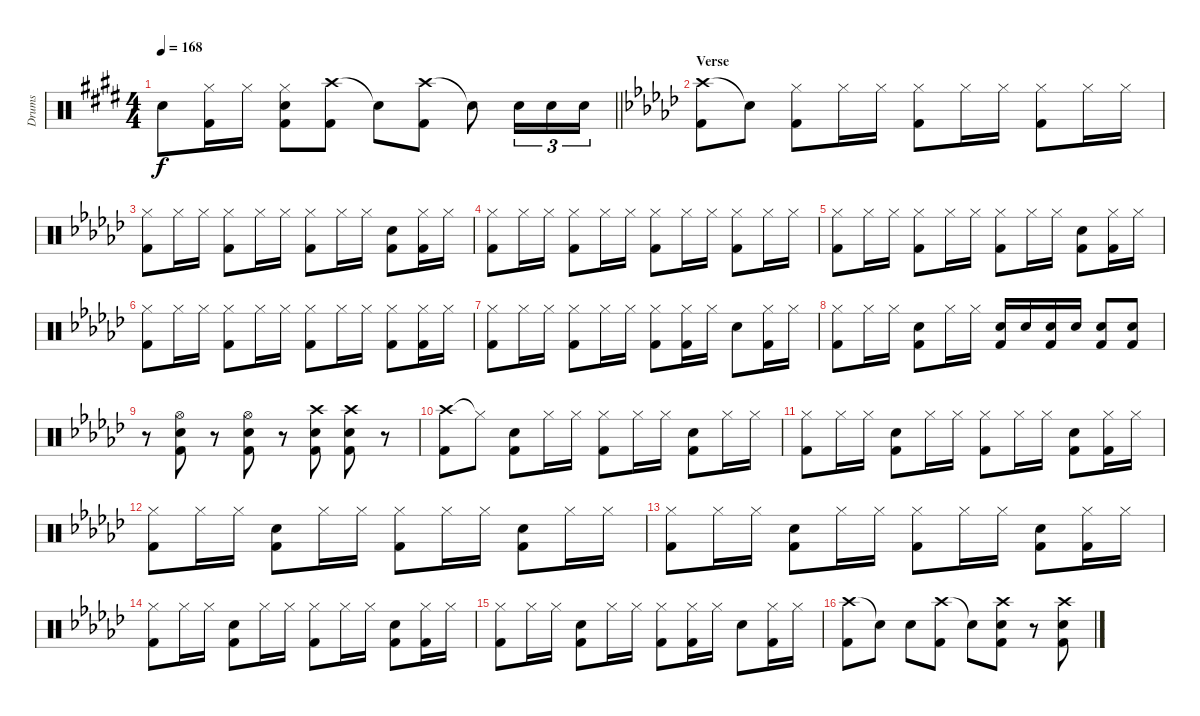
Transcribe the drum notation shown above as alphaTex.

\track ("Drums" "Drums") {instrument percussion}
\staff {score}
\articulation defaults
\ts (4 4)
\tempo 168
\clef neutral
\barLineRight lightlight
\ks e "Snare (hit)"{t}.8{dy f}
("Hi-Hat (closed)" "Kick (hit) 2").16 "Hi-Hat (closed)".16 ("Hi-Hat (closed)" "Snare (hit) 2" "Kick (hit) 2").8 ("Crash high (hit)" "Kick (hit) 2").8 "Snare (hit)"{t}.8 ("Crash high (hit)" "Kick (hit) 2").8 "Snare (hit)"{t}.8 "Snare (hit) 2".16{tu (3 2)} "Snare (hit) 2".16{tu (3 2)} "Snare (hit) 2".16{tu (3 2)} |
\section ("" "Verse")
\ks gb
("Crash high (hit)" "Kick (hit) 2").8 "Snare (hit)"{t}.8 ("Hi-Hat (closed)" "Kick (hit) 2").8 "Hi-Hat (closed)".16 "Hi-Hat (closed)".16 ("Hi-Hat (closed)" "Kick (hit) 2").8 "Hi-Hat (closed)".16 "Hi-Hat (closed)".16 ("Hi-Hat (closed)" "Kick (hit) 2").8 "Hi-Hat (closed)".16 "Hi-Hat (closed)".16 |
("Hi-Hat (closed)" "Kick (hit) 2").8 "Hi-Hat (closed)".16 "Hi-Hat (closed)".16 ("Hi-Hat (closed)" "Kick (hit) 2").8 "Hi-Hat (closed)".16 "Hi-Hat (closed)".16 ("Hi-Hat (closed)" "Kick (hit) 2").8 "Hi-Hat (closed)".16 "Hi-Hat (closed)".16 ("Snare (hit) 2" "Kick (hit) 2").8 ("Hi-Hat (closed)" "Kick (hit) 2").16 "Hi-Hat (closed)".16 |
("Hi-Hat (closed)" "Kick (hit) 2").8 "Hi-Hat (closed)".16 "Hi-Hat (closed)".16 ("Hi-Hat (closed)" "Kick (hit) 2").8 "Hi-Hat (closed)".16 "Hi-Hat (closed)".16 ("Hi-Hat (closed)" "Kick (hit) 2").8 "Hi-Hat (closed)".16 "Hi-Hat (closed)".16 ("Hi-Hat (closed)" "Kick (hit) 2").8 "Hi-Hat (closed)".16 "Hi-Hat (closed)".16 |
("Hi-Hat (closed)" "Kick (hit) 2").8 "Hi-Hat (closed)".16 "Hi-Hat (closed)".16 ("Hi-Hat (closed)" "Kick (hit) 2").8 "Hi-Hat (closed)".16 "Hi-Hat (closed)".16 ("Hi-Hat (closed)" "Kick (hit) 2").8 "Hi-Hat (closed)".16 "Hi-Hat (closed)".16 ("Snare (hit) 2" "Kick (hit) 2").8 ("Hi-Hat (closed)" "Kick (hit) 2").16 "Hi-Hat (closed)".16 |
("Hi-Hat (closed)" "Kick (hit) 2").8 "Hi-Hat (closed)".16 "Hi-Hat (closed)".16 ("Hi-Hat (closed)" "Kick (hit) 2").8 "Hi-Hat (closed)".16 "Hi-Hat (closed)".16 ("Hi-Hat (closed)" "Kick (hit) 2").8 "Hi-Hat (closed)".16 "Hi-Hat (closed)".16 ("Hi-Hat (closed)" "Kick (hit) 2").8 ("Hi-Hat (closed)" "Kick (hit) 2").16 "Hi-Hat (closed)".16 |
("Hi-Hat (closed)" "Kick (hit) 2").8 "Hi-Hat (closed)".16 "Hi-Hat (closed)".16 ("Hi-Hat (closed)" "Kick (hit) 2").8 "Hi-Hat (closed)".16 "Hi-Hat (closed)".16 ("Hi-Hat (closed)" "Kick (hit) 2").8 ("Hi-Hat (closed)" "Kick (hit) 2").16 "Hi-Hat (closed)".16 "Snare (hit) 2".8 ("Hi-Hat (closed)" "Kick (hit) 2").16 "Hi-Hat (closed)".16 |
("Hi-Hat (closed)" "Kick (hit) 2").8 "Hi-Hat (closed)".16 "Hi-Hat (closed)".16 ("Snare (hit) 2" "Kick (hit) 2").8 "Hi-Hat (closed)".16 "Hi-Hat (closed)".16 ("Snare (hit) 2" "Kick (hit) 2").16 "Snare (hit) 2".16 ("Snare (hit) 2" "Kick (hit) 2").16 "Snare (hit) 2".16 ("Snare (hit) 2" "Kick (hit) 2").8 ("Snare (hit) 2" "Kick (hit) 2").8 |
r.8 ("Hi-Hat (open)" "Snare (hit) 2" "Kick (hit) 2").8 r.8 ("Hi-Hat (open)" "Snare (hit) 2" "Kick (hit) 2").8 r.8 ("Crash high (hit)" "Snare (hit) 2" "Kick (hit) 2").8 ("Crash high (hit)" "Snare (hit) 2" "Kick (hit) 2").8 r.8 |
("Crash high (hit)" "Kick (hit) 2").8 "Hi-Hat (closed)"{t}.8 ("Snare (hit) 2" "Kick (hit) 2").8 "Hi-Hat (closed)".16 "Hi-Hat (closed)".16 ("Hi-Hat (closed)" "Kick (hit) 2").8 "Hi-Hat (closed)".16 "Hi-Hat (closed)".16 ("Snare (hit) 2" "Kick (hit) 2").8 "Hi-Hat (closed)".16 "Hi-Hat (closed)".16 |
("Hi-Hat (closed)" "Kick (hit) 2").8 "Hi-Hat (closed)".16 "Hi-Hat (closed)".16 ("Snare (hit) 2" "Kick (hit) 2").8 "Hi-Hat (closed)".16 "Hi-Hat (closed)".16 ("Hi-Hat (closed)" "Kick (hit) 2").8 "Hi-Hat (closed)".16 "Hi-Hat (closed)".16 ("Snare (hit) 2" "Kick (hit) 2").8 ("Hi-Hat (closed)" "Kick (hit) 2").16 "Hi-Hat (closed)".16 |
("Hi-Hat (closed)" "Kick (hit) 2").8 "Hi-Hat (closed)".16 "Hi-Hat (closed)".16 ("Snare (hit) 2" "Kick (hit) 2").8 "Hi-Hat (closed)".16 "Hi-Hat (closed)".16 ("Hi-Hat (closed)" "Kick (hit) 2").8 "Hi-Hat (closed)".16 "Hi-Hat (closed)".16 ("Snare (hit) 2" "Kick (hit) 2").8 "Hi-Hat (closed)".16 "Hi-Hat (closed)".16 |
("Hi-Hat (closed)" "Kick (hit) 2").8 "Hi-Hat (closed)".16 "Hi-Hat (closed)".16 ("Snare (hit) 2" "Kick (hit) 2").8 "Hi-Hat (closed)".16 "Hi-Hat (closed)".16 ("Hi-Hat (closed)" "Kick (hit) 2").8 "Hi-Hat (closed)".16 "Hi-Hat (closed)".16 ("Snare (hit) 2" "Kick (hit) 2").8 ("Hi-Hat (closed)" "Kick (hit) 2").16 "Hi-Hat (closed)".16 |
("Hi-Hat (closed)" "Kick (hit) 2").8 "Hi-Hat (closed)".16 "Hi-Hat (closed)".16 ("Snare (hit) 2" "Kick (hit) 2").8 "Hi-Hat (closed)".16 "Hi-Hat (closed)".16 ("Hi-Hat (closed)" "Kick (hit) 2").8 "Hi-Hat (closed)".16 "Hi-Hat (closed)".16 ("Snare (hit) 2" "Kick (hit) 2").8 ("Hi-Hat (closed)" "Kick (hit) 2").16 "Hi-Hat (closed)".16 |
("Hi-Hat (closed)" "Kick (hit) 2").8 "Hi-Hat (closed)".16 "Hi-Hat (closed)".16 ("Snare (hit) 2" "Kick (hit) 2").8 "Hi-Hat (closed)".16 "Hi-Hat (closed)".16 ("Hi-Hat (closed)" "Kick (hit) 2").8 ("Hi-Hat (closed)" "Kick (hit) 2").16 "Hi-Hat (closed)".16 "Snare (hit) 2".8 ("Hi-Hat (closed)" "Kick (hit) 2").16 "Hi-Hat (closed)".16 |
("Crash high (hit)" "Kick (hit) 2").8 "Snare (hit)"{t}.8 "Snare (hit) 2".8 ("Crash high (hit)" "Kick (hit) 2").8 "Snare (hit)"{t}.8 ("Crash high (hit)" "Snare (hit) 2" "Kick (hit) 2").8 r.8 ("Crash high (hit)" "Snare (hit) 2" "Kick (hit) 2").8
